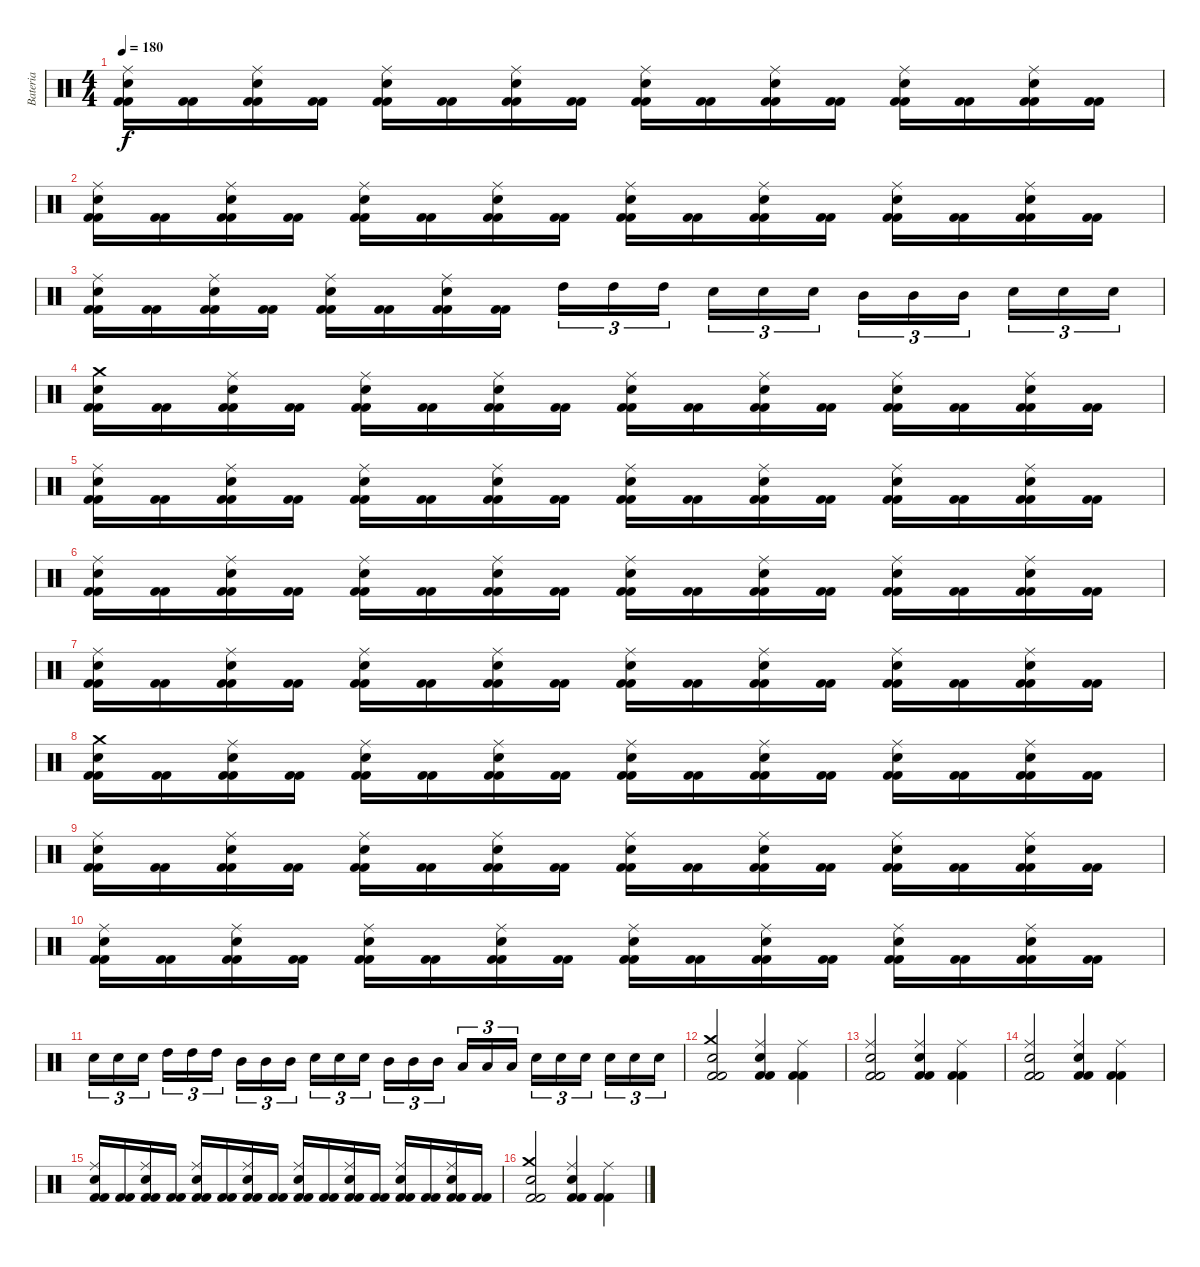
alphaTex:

\track ("Bateria" "Bateria") {instrument percussion}
\staff {score}
\articulation defaults
\ts (4 4)
\tempo 180
\clef neutral
\ks c
("Kick (hit) 2" "Kick (hit) 2" "Electric Snare (hit)" "Ride (middle)").16{dy f} ("Kick (hit) 2" "Kick (hit) 2").16 ("Kick (hit) 2" "Kick (hit) 2" "Electric Snare (hit)" "Ride (middle)").16 ("Kick (hit) 2" "Kick (hit) 2").16 ("Kick (hit) 2" "Kick (hit) 2" "Electric Snare (hit)" "Ride (middle)").16 ("Kick (hit) 2" "Kick (hit) 2").16 ("Kick (hit) 2" "Kick (hit) 2" "Electric Snare (hit)" "Ride (middle)").16 ("Kick (hit) 2" "Kick (hit) 2").16 ("Kick (hit) 2" "Kick (hit) 2" "Electric Snare (hit)" "Ride (middle)").16 ("Kick (hit) 2" "Kick (hit) 2").16 ("Kick (hit) 2" "Kick (hit) 2" "Electric Snare (hit)" "Ride (middle)").16 ("Kick (hit) 2" "Kick (hit) 2").16 ("Kick (hit) 2" "Kick (hit) 2" "Electric Snare (hit)" "Ride (middle)").16 ("Kick (hit) 2" "Kick (hit) 2").16 ("Kick (hit) 2" "Kick (hit) 2" "Electric Snare (hit)" "Ride (middle)").16 ("Kick (hit) 2" "Kick (hit) 2").16 |
("Kick (hit) 2" "Kick (hit) 2" "Electric Snare (hit)" "Ride (middle)").16 ("Kick (hit) 2" "Kick (hit) 2").16 ("Kick (hit) 2" "Kick (hit) 2" "Electric Snare (hit)" "Ride (middle)").16 ("Kick (hit) 2" "Kick (hit) 2").16 ("Kick (hit) 2" "Kick (hit) 2" "Electric Snare (hit)" "Ride (middle)").16 ("Kick (hit) 2" "Kick (hit) 2").16 ("Kick (hit) 2" "Kick (hit) 2" "Electric Snare (hit)" "Ride (middle)").16 ("Kick (hit) 2" "Kick (hit) 2").16 ("Kick (hit) 2" "Kick (hit) 2" "Electric Snare (hit)" "Ride (middle)").16 ("Kick (hit) 2" "Kick (hit) 2").16 ("Kick (hit) 2" "Kick (hit) 2" "Electric Snare (hit)" "Ride (middle)").16 ("Kick (hit) 2" "Kick (hit) 2").16 ("Kick (hit) 2" "Kick (hit) 2" "Electric Snare (hit)" "Ride (middle)").16 ("Kick (hit) 2" "Kick (hit) 2").16 ("Kick (hit) 2" "Kick (hit) 2" "Electric Snare (hit)" "Ride (middle)").16 ("Kick (hit) 2" "Kick (hit) 2").16 |
("Kick (hit) 2" "Kick (hit) 2" "Electric Snare (hit)" "Ride (middle)").16 ("Kick (hit) 2" "Kick (hit) 2").16 ("Kick (hit) 2" "Kick (hit) 2" "Electric Snare (hit)" "Ride (middle)").16 ("Kick (hit) 2" "Kick (hit) 2").16 ("Kick (hit) 2" "Kick (hit) 2" "Electric Snare (hit)" "Ride (middle)").16 ("Kick (hit) 2" "Kick (hit) 2").16 ("Kick (hit) 2" "Kick (hit) 2" "Electric Snare (hit)" "Ride (middle)").16 ("Kick (hit) 2" "Kick (hit) 2").16 "High Tom (hit)".16{tu (3 2)} "High Tom (hit)".16{tu (3 2)} "High Tom (hit)".16{tu (3 2)} "Electric Snare (hit)".16{tu (3 2)} "Electric Snare (hit)".16{tu (3 2)} "Electric Snare (hit)".16{tu (3 2)} "Mid Tom (hit)".16{tu (3 2)} "Mid Tom (hit)".16{tu (3 2)} "Mid Tom (hit)".16{tu (3 2)} "Electric Snare (hit)".16{tu (3 2)} "Electric Snare (hit)".16{tu (3 2)} "Electric Snare (hit)".16{tu (3 2)} |
("Kick (hit) 2" "Kick (hit) 2" "Electric Snare (hit)" "Crash medium (hit)").16 ("Kick (hit) 2" "Kick (hit) 2").16 ("Kick (hit) 2" "Kick (hit) 2" "Electric Snare (hit)" "Ride (middle)").16 ("Kick (hit) 2" "Kick (hit) 2").16 ("Kick (hit) 2" "Kick (hit) 2" "Electric Snare (hit)" "Ride (middle)").16 ("Kick (hit) 2" "Kick (hit) 2").16 ("Kick (hit) 2" "Kick (hit) 2" "Electric Snare (hit)" "Ride (middle)").16 ("Kick (hit) 2" "Kick (hit) 2").16 ("Kick (hit) 2" "Kick (hit) 2" "Electric Snare (hit)" "Ride (middle)").16 ("Kick (hit) 2" "Kick (hit) 2").16 ("Kick (hit) 2" "Kick (hit) 2" "Electric Snare (hit)" "Ride (middle)").16 ("Kick (hit) 2" "Kick (hit) 2").16 ("Kick (hit) 2" "Kick (hit) 2" "Electric Snare (hit)" "Ride (middle)").16 ("Kick (hit) 2" "Kick (hit) 2").16 ("Kick (hit) 2" "Kick (hit) 2" "Electric Snare (hit)" "Ride (middle)").16 ("Kick (hit) 2" "Kick (hit) 2").16 |
("Kick (hit) 2" "Kick (hit) 2" "Electric Snare (hit)" "Ride (middle)").16 ("Kick (hit) 2" "Kick (hit) 2").16 ("Kick (hit) 2" "Kick (hit) 2" "Electric Snare (hit)" "Ride (middle)").16 ("Kick (hit) 2" "Kick (hit) 2").16 ("Kick (hit) 2" "Kick (hit) 2" "Electric Snare (hit)" "Ride (middle)").16 ("Kick (hit) 2" "Kick (hit) 2").16 ("Kick (hit) 2" "Kick (hit) 2" "Electric Snare (hit)" "Ride (middle)").16 ("Kick (hit) 2" "Kick (hit) 2").16 ("Kick (hit) 2" "Kick (hit) 2" "Electric Snare (hit)" "Ride (middle)").16 ("Kick (hit) 2" "Kick (hit) 2").16 ("Kick (hit) 2" "Kick (hit) 2" "Electric Snare (hit)" "Ride (middle)").16 ("Kick (hit) 2" "Kick (hit) 2").16 ("Kick (hit) 2" "Kick (hit) 2" "Electric Snare (hit)" "Ride (middle)").16 ("Kick (hit) 2" "Kick (hit) 2").16 ("Kick (hit) 2" "Kick (hit) 2" "Electric Snare (hit)" "Ride (middle)").16 ("Kick (hit) 2" "Kick (hit) 2").16 |
("Kick (hit) 2" "Kick (hit) 2" "Electric Snare (hit)" "Ride (middle)").16 ("Kick (hit) 2" "Kick (hit) 2").16 ("Kick (hit) 2" "Kick (hit) 2" "Electric Snare (hit)" "Ride (middle)").16 ("Kick (hit) 2" "Kick (hit) 2").16 ("Kick (hit) 2" "Kick (hit) 2" "Electric Snare (hit)" "Ride (middle)").16 ("Kick (hit) 2" "Kick (hit) 2").16 ("Kick (hit) 2" "Kick (hit) 2" "Electric Snare (hit)" "Ride (middle)").16 ("Kick (hit) 2" "Kick (hit) 2").16 ("Kick (hit) 2" "Kick (hit) 2" "Electric Snare (hit)" "Ride (middle)").16 ("Kick (hit) 2" "Kick (hit) 2").16 ("Kick (hit) 2" "Kick (hit) 2" "Electric Snare (hit)" "Ride (middle)").16 ("Kick (hit) 2" "Kick (hit) 2").16 ("Kick (hit) 2" "Kick (hit) 2" "Electric Snare (hit)" "Ride (middle)").16 ("Kick (hit) 2" "Kick (hit) 2").16 ("Kick (hit) 2" "Kick (hit) 2" "Electric Snare (hit)" "Ride (middle)").16 ("Kick (hit) 2" "Kick (hit) 2").16 |
("Kick (hit) 2" "Kick (hit) 2" "Electric Snare (hit)" "Ride (middle)").16 ("Kick (hit) 2" "Kick (hit) 2").16 ("Kick (hit) 2" "Kick (hit) 2" "Electric Snare (hit)" "Ride (middle)").16 ("Kick (hit) 2" "Kick (hit) 2").16 ("Kick (hit) 2" "Kick (hit) 2" "Electric Snare (hit)" "Ride (middle)").16 ("Kick (hit) 2" "Kick (hit) 2").16 ("Kick (hit) 2" "Kick (hit) 2" "Electric Snare (hit)" "Ride (middle)").16 ("Kick (hit) 2" "Kick (hit) 2").16 ("Kick (hit) 2" "Kick (hit) 2" "Electric Snare (hit)" "Ride (middle)").16 ("Kick (hit) 2" "Kick (hit) 2").16 ("Kick (hit) 2" "Kick (hit) 2" "Electric Snare (hit)" "Ride (middle)").16 ("Kick (hit) 2" "Kick (hit) 2").16 ("Kick (hit) 2" "Kick (hit) 2" "Electric Snare (hit)" "Ride (middle)").16 ("Kick (hit) 2" "Kick (hit) 2").16 ("Kick (hit) 2" "Kick (hit) 2" "Electric Snare (hit)" "Ride (middle)").16 ("Kick (hit) 2" "Kick (hit) 2").16 |
("Kick (hit) 2" "Kick (hit) 2" "Electric Snare (hit)" "Crash medium (hit)").16 ("Kick (hit) 2" "Kick (hit) 2").16 ("Kick (hit) 2" "Kick (hit) 2" "Electric Snare (hit)" "Ride (middle)").16 ("Kick (hit) 2" "Kick (hit) 2").16 ("Kick (hit) 2" "Kick (hit) 2" "Electric Snare (hit)" "Ride (middle)").16 ("Kick (hit) 2" "Kick (hit) 2").16 ("Kick (hit) 2" "Kick (hit) 2" "Electric Snare (hit)" "Ride (middle)").16 ("Kick (hit) 2" "Kick (hit) 2").16 ("Kick (hit) 2" "Kick (hit) 2" "Electric Snare (hit)" "Ride (middle)").16 ("Kick (hit) 2" "Kick (hit) 2").16 ("Kick (hit) 2" "Kick (hit) 2" "Electric Snare (hit)" "Ride (middle)").16 ("Kick (hit) 2" "Kick (hit) 2").16 ("Kick (hit) 2" "Kick (hit) 2" "Electric Snare (hit)" "Ride (middle)").16 ("Kick (hit) 2" "Kick (hit) 2").16 ("Kick (hit) 2" "Kick (hit) 2" "Electric Snare (hit)" "Ride (middle)").16 ("Kick (hit) 2" "Kick (hit) 2").16 |
("Kick (hit) 2" "Kick (hit) 2" "Electric Snare (hit)" "Ride (middle)").16 ("Kick (hit) 2" "Kick (hit) 2").16 ("Kick (hit) 2" "Kick (hit) 2" "Electric Snare (hit)" "Ride (middle)").16 ("Kick (hit) 2" "Kick (hit) 2").16 ("Kick (hit) 2" "Kick (hit) 2" "Electric Snare (hit)" "Ride (middle)").16 ("Kick (hit) 2" "Kick (hit) 2").16 ("Kick (hit) 2" "Kick (hit) 2" "Electric Snare (hit)" "Ride (middle)").16 ("Kick (hit) 2" "Kick (hit) 2").16 ("Kick (hit) 2" "Kick (hit) 2" "Electric Snare (hit)" "Ride (middle)").16 ("Kick (hit) 2" "Kick (hit) 2").16 ("Kick (hit) 2" "Kick (hit) 2" "Electric Snare (hit)" "Ride (middle)").16 ("Kick (hit) 2" "Kick (hit) 2").16 ("Kick (hit) 2" "Kick (hit) 2" "Electric Snare (hit)" "Ride (middle)").16 ("Kick (hit) 2" "Kick (hit) 2").16 ("Kick (hit) 2" "Kick (hit) 2" "Electric Snare (hit)" "Ride (middle)").16 ("Kick (hit) 2" "Kick (hit) 2").16 |
("Kick (hit) 2" "Kick (hit) 2" "Electric Snare (hit)" "Ride (middle)").16 ("Kick (hit) 2" "Kick (hit) 2").16 ("Kick (hit) 2" "Kick (hit) 2" "Electric Snare (hit)" "Ride (middle)").16 ("Kick (hit) 2" "Kick (hit) 2").16 ("Kick (hit) 2" "Kick (hit) 2" "Electric Snare (hit)" "Ride (middle)").16 ("Kick (hit) 2" "Kick (hit) 2").16 ("Kick (hit) 2" "Kick (hit) 2" "Electric Snare (hit)" "Ride (middle)").16 ("Kick (hit) 2" "Kick (hit) 2").16 ("Kick (hit) 2" "Kick (hit) 2" "Electric Snare (hit)" "Ride (middle)").16 ("Kick (hit) 2" "Kick (hit) 2").16 ("Kick (hit) 2" "Kick (hit) 2" "Electric Snare (hit)" "Ride (middle)").16 ("Kick (hit) 2" "Kick (hit) 2").16 ("Kick (hit) 2" "Kick (hit) 2" "Electric Snare (hit)" "Ride (middle)").16 ("Kick (hit) 2" "Kick (hit) 2").16 ("Kick (hit) 2" "Kick (hit) 2" "Electric Snare (hit)" "Ride (middle)").16 ("Kick (hit) 2" "Kick (hit) 2").16 |
"Electric Snare (hit)".16{tu (3 2)} "Electric Snare (hit)".16{tu (3 2)} "Electric Snare (hit)".16{tu (3 2)} "High Tom (hit)".16{tu (3 2)} "High Tom (hit)".16{tu (3 2)} "High Tom (hit)".16{tu (3 2)} "Mid Tom (hit)".16{tu (3 2)} "Mid Tom (hit)".16{tu (3 2)} "Mid Tom (hit)".16{tu (3 2)} "Electric Snare (hit)".16{tu (3 2)} "Electric Snare (hit)".16{tu (3 2)} "Electric Snare (hit)".16{tu (3 2)} "Mid Tom (hit)".16{tu (3 2)} "Mid Tom (hit)".16{tu (3 2)} "Mid Tom (hit)".16{tu (3 2)} "Low Tom (hit)".16{tu (3 2)} "Low Tom (hit)".16{tu (3 2)} "Low Tom (hit)".16{tu (3 2)} "Electric Snare (hit)".16{tu (3 2)} "Electric Snare (hit)".16{tu (3 2)} "Electric Snare (hit)".16{tu (3 2)} "Electric Snare (hit)".16{tu (3 2)} "Electric Snare (hit)".16{tu (3 2)} "Electric Snare (hit)".16{tu (3 2)} |
("Kick (hit) 2" "Kick (hit) 2" "Snare (hit) 2" "Crash medium (hit)").2 ("Kick (hit) 2" "Kick (hit) 2" "Snare (hit) 2" "Ride (middle)").4 ("Kick (hit) 2" "Kick (hit) 2" "Ride (middle)").4 |
("Kick (hit) 2" "Kick (hit) 2" "Snare (hit) 2" "Ride (middle)").2 ("Kick (hit) 2" "Kick (hit) 2" "Snare (hit) 2" "Ride (middle)").4 ("Kick (hit) 2" "Kick (hit) 2" "Ride (middle)").4 |
("Kick (hit) 2" "Kick (hit) 2" "Snare (hit) 2" "Ride (middle)").2 ("Kick (hit) 2" "Kick (hit) 2" "Snare (hit) 2" "Ride (middle)").4 ("Kick (hit) 2" "Kick (hit) 2" "Ride (middle)").4 |
("Kick (hit) 2" "Kick (hit) 2" "Snare (hit) 2" "Ride (middle)").16 ("Kick (hit) 2" "Kick (hit) 2").16 ("Kick (hit) 2" "Kick (hit) 2" "Snare (hit) 2" "Ride (middle)").16 ("Kick (hit) 2" "Kick (hit) 2").16 ("Kick (hit) 2" "Kick (hit) 2" "Snare (hit) 2" "Ride (middle)").16 ("Kick (hit) 2" "Kick (hit) 2").16 ("Kick (hit) 2" "Kick (hit) 2" "Snare (hit) 2" "Ride (middle)").16 ("Kick (hit) 2" "Kick (hit) 2").16 ("Kick (hit) 2" "Kick (hit) 2" "Snare (hit) 2" "Ride (middle)").16 ("Kick (hit) 2" "Kick (hit) 2").16 ("Kick (hit) 2" "Kick (hit) 2" "Snare (hit) 2" "Ride (middle)").16 ("Kick (hit) 2" "Kick (hit) 2").16 ("Kick (hit) 2" "Kick (hit) 2" "Snare (hit) 2" "Ride (middle)").16 ("Kick (hit) 2" "Kick (hit) 2").16 ("Kick (hit) 2" "Kick (hit) 2" "Snare (hit) 2" "Ride (middle)").16 ("Kick (hit) 2" "Kick (hit) 2").16 |
("Kick (hit) 2" "Kick (hit) 2" "Snare (hit) 2" "Crash medium (hit)").2 ("Kick (hit) 2" "Kick (hit) 2" "Snare (hit) 2" "Ride (middle)").4 ("Kick (hit) 2" "Kick (hit) 2" "Ride (middle)").4
